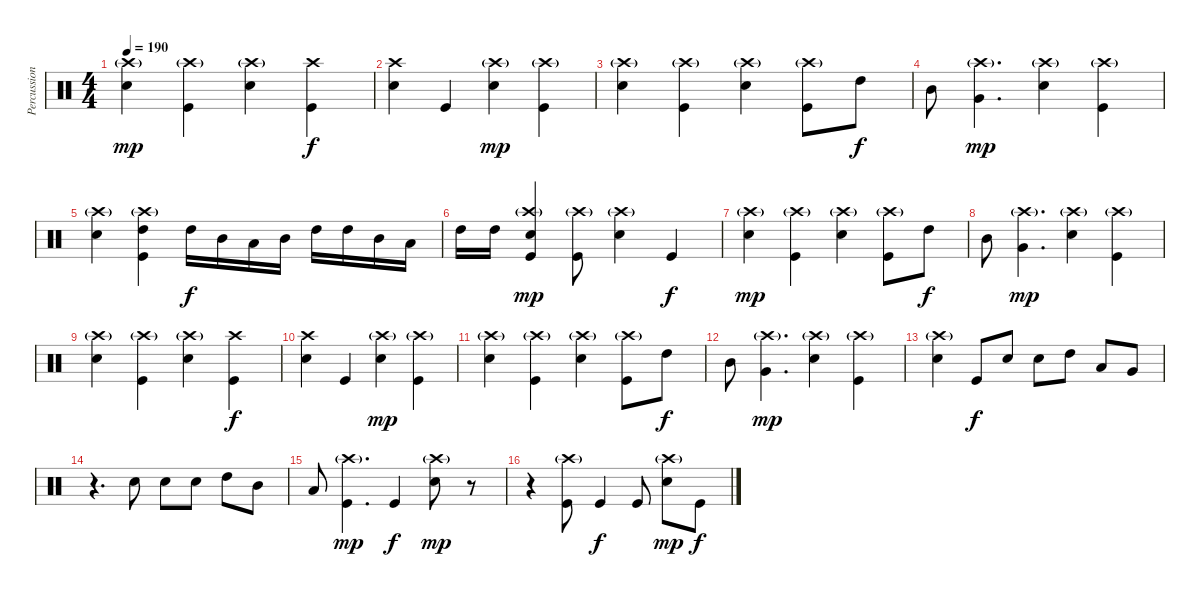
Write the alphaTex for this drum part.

\track ("Percussion" "Percussion") {instrument percussion}
\staff {score}
\articulation defaults
\ts (4 4)
\tempo 190
\clef neutral
\ks c
("Electric Snare (hit)" "Crash high (hit)"{g}).4{dy mp} ("Kick (hit)" "Crash high (hit)"{g}).4 ("Electric Snare (hit)" "Crash high (hit)"{g}).4 ("Kick (hit)" "Crash high (hit)").4{dy f} |
("Electric Snare (hit)" "Crash high (hit)").4 "Kick (hit)".4 ("Electric Snare (hit)" "Crash high (hit)"{g}).4{dy mp} ("Kick (hit)" "Crash high (hit)"{g}).4 |
("Electric Snare (hit)" "Crash high (hit)"{g}).4 ("Kick (hit)" "Crash high (hit)"{g}).4 ("Electric Snare (hit)" "Crash high (hit)"{g}).4 ("Kick (hit)" "Crash high (hit)"{g}).8 "High Tom (hit)".8{dy f} |
"Mid Tom (hit)".8 ("Very Low Tom (hit)" "Crash high (hit)"{g}).4{d dy mp} ("Electric Snare (hit)" "Crash high (hit)"{g}).4 ("Kick (hit)" "Crash high (hit)"{g}).4 |
("Electric Snare (hit)" "Crash high (hit)"{g}).4 ("High Tom (hit)" "Kick (hit)" "Crash high (hit)"{g}).4 "High Tom (hit)".16{dy f} "Mid Tom (hit)".16 "Low Tom (hit)".16 "Mid Tom (hit)".16 "High Tom (hit)".16 "High Tom (hit)".16 "Mid Tom (hit)".16 "Low Tom (hit)".16 |
"High Tom (hit)".16 "High Tom (hit)".16 ("Crash high (hit)"{g} "Kick (hit)" "Electric Snare (hit)").4{dy mp} ("Kick (hit)" "Crash high (hit)"{g}).8 ("Electric Snare (hit)" "Crash high (hit)"{g}).4 "Kick (hit)".4{dy f} |
("Electric Snare (hit)" "Crash high (hit)"{g}).4{dy mp} ("Kick (hit)" "Crash high (hit)"{g}).4 ("Electric Snare (hit)" "Crash high (hit)"{g}).4 ("Kick (hit)" "Crash high (hit)"{g}).8 "High Tom (hit)".8{dy f} |
"Mid Tom (hit)".8 ("Very Low Tom (hit)" "Crash high (hit)"{g}).4{d dy mp} ("Electric Snare (hit)" "Crash high (hit)"{g}).4 ("Kick (hit)" "Crash high (hit)"{g}).4 |
("Electric Snare (hit)" "Crash high (hit)"{g}).4 ("Kick (hit)" "Crash high (hit)"{g}).4 ("Electric Snare (hit)" "Crash high (hit)"{g}).4 ("Kick (hit)" "Crash high (hit)").4{dy f} |
("Electric Snare (hit)" "Crash high (hit)").4 "Kick (hit)".4 ("Electric Snare (hit)" "Crash high (hit)"{g}).4{dy mp} ("Kick (hit)" "Crash high (hit)"{g}).4 |
("Electric Snare (hit)" "Crash high (hit)"{g}).4 ("Kick (hit)" "Crash high (hit)"{g}).4 ("Electric Snare (hit)" "Crash high (hit)"{g}).4 ("Kick (hit)" "Crash high (hit)"{g}).8 "High Tom (hit)".8{dy f} |
"Mid Tom (hit)".8 ("Very Low Tom (hit)" "Crash high (hit)"{g}).4{d dy mp} ("Electric Snare (hit)" "Crash high (hit)"{g}).4 ("Kick (hit)" "Crash high (hit)"{g}).4 |
("Electric Snare (hit)" "Crash high (hit)"{g}).4 "Kick (hit)".8{dy f} "Electric Snare (hit)".8 "Electric Snare (hit)".8 "High Tom (hit)".8 "Low Tom (hit)".8 "Very Low Tom (hit)".8 |
r.4{d} "Electric Snare (hit)".8 "Electric Snare (hit)".8 "Electric Snare (hit)".8 "High Tom (hit)".8 "Mid Tom (hit)".8 |
"Low Tom (hit)".8 ("Kick (hit)" "Crash high (hit)"{g}).4{d dy mp} "Kick (hit)".4{dy f} ("Electric Snare (hit)" "Crash high (hit)"{g}).8{dy mp} r.8 |
r.4 ("Kick (hit)" "Crash high (hit)"{g}).8 "Kick (hit)".4{dy f} "Kick (hit)".8 ("Electric Snare (hit)" "Crash high (hit)"{g}).8{dy mp} "Kick (hit)".8{dy f}
